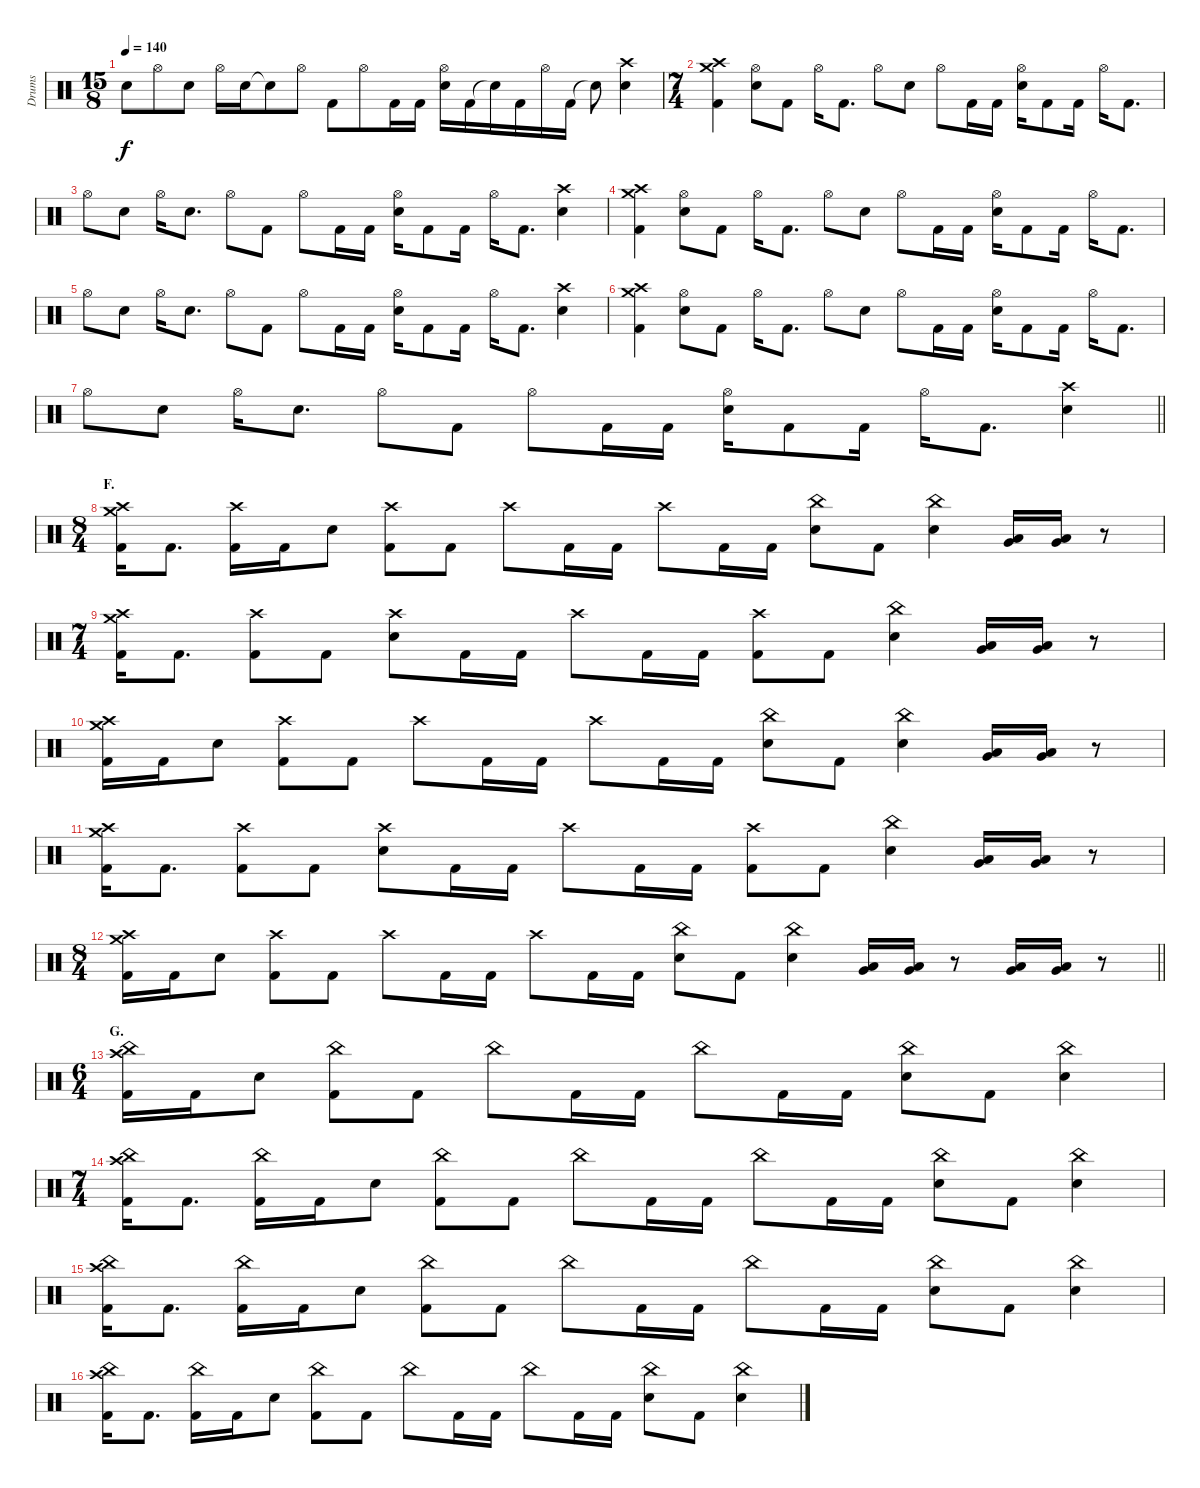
\track ("Drums" "Drums") {instrument percussion}
\staff {score}
\articulation defaults
\ts (15 8)
\tempo 140
\clef neutral
\ks c "Snare (hit)"{t}.8{dy f} "Hi-Hat (open)".8 "Electric Snare (hit)".8 "Hi-Hat (open)".16 "Electric Snare (hit)".16 "Snare (hit)"{t}.8 "Hi-Hat (open)".8 "Kick (hit) 2".8 "Hi-Hat (open)".8 "Kick (hit) 2".16 "Kick (hit) 2".16
("Hi-Hat (open)" "Electric Snare (hit)").16 "Kick (hit) 2".16 "Snare (hit)"{t}.16 "Kick (hit) 2".16 "Hi-Hat (open)".16 "Kick (hit) 2".16 "Snare (hit)"{t}.8 ("Crash high (hit)" "Electric Snare (hit)").4 |
\ts (7 4)
("Crash medium (hit)" "Crash high (hit)" "Kick (hit) 2").4 ("Hi-Hat (open)" "Electric Snare (hit)").8 "Kick (hit) 2".8 "Hi-Hat (open)".16 "Kick (hit) 2".8{d} "Hi-Hat (open)".8 "Electric Snare (hit)".8 "Hi-Hat (open)".8 "Kick (hit) 2".16 "Kick (hit) 2".16 ("Hi-Hat (open)" "Electric Snare (hit)").16 "Kick (hit) 2".8 "Kick (hit) 2".16 "Hi-Hat (open)".16 "Kick (hit) 2".8{d} |
"Hi-Hat (open)".8 "Electric Snare (hit)".8 "Hi-Hat (open)".16 "Electric Snare (hit)".8{d} "Hi-Hat (open)".8 "Kick (hit) 2".8 "Hi-Hat (open)".8 "Kick (hit) 2".16 "Kick (hit) 2".16 ("Hi-Hat (open)" "Electric Snare (hit)").16 "Kick (hit) 2".8 "Kick (hit) 2".16 "Hi-Hat (open)".16 "Kick (hit) 2".8{d} ("Crash high (hit)" "Electric Snare (hit)").4 |
("Crash medium (hit)" "Crash high (hit)" "Kick (hit) 2").4 ("Hi-Hat (open)" "Electric Snare (hit)").8 "Kick (hit) 2".8 "Hi-Hat (open)".16 "Kick (hit) 2".8{d} "Hi-Hat (open)".8 "Electric Snare (hit)".8 "Hi-Hat (open)".8 "Kick (hit) 2".16 "Kick (hit) 2".16 ("Hi-Hat (open)" "Electric Snare (hit)").16 "Kick (hit) 2".8 "Kick (hit) 2".16 "Hi-Hat (open)".16 "Kick (hit) 2".8{d} |
"Hi-Hat (open)".8 "Electric Snare (hit)".8 "Hi-Hat (open)".16 "Electric Snare (hit)".8{d} "Hi-Hat (open)".8 "Kick (hit) 2".8 "Hi-Hat (open)".8 "Kick (hit) 2".16 "Kick (hit) 2".16 ("Hi-Hat (open)" "Electric Snare (hit)").16 "Kick (hit) 2".8 "Kick (hit) 2".16 "Hi-Hat (open)".16 "Kick (hit) 2".8{d} ("Crash high (hit)" "Electric Snare (hit)").4 |
("Crash medium (hit)" "Crash high (hit)" "Kick (hit) 2").4 ("Hi-Hat (open)" "Electric Snare (hit)").8 "Kick (hit) 2".8 "Hi-Hat (open)".16 "Kick (hit) 2".8{d} "Hi-Hat (open)".8 "Electric Snare (hit)".8 "Hi-Hat (open)".8 "Kick (hit) 2".16 "Kick (hit) 2".16 ("Hi-Hat (open)" "Electric Snare (hit)").16 "Kick (hit) 2".8 "Kick (hit) 2".16 "Hi-Hat (open)".16 "Kick (hit) 2".8{d} |
\barLineRight lightlight "Hi-Hat (open)".8 "Electric Snare (hit)".8 "Hi-Hat (open)".16 "Electric Snare (hit)".8{d} "Hi-Hat (open)".8 "Kick (hit) 2".8 "Hi-Hat (open)".8 "Kick (hit) 2".16 "Kick (hit) 2".16
("Hi-Hat (open)" "Electric Snare (hit)").16 "Kick (hit) 2".8 "Kick (hit) 2".16 "Hi-Hat (open)".16 "Kick (hit) 2".8{d} ("Crash high (hit)" "Electric Snare (hit)").4 |
\ts (8 4)
\section ("" "F.")
("Crash medium (hit)" "Crash high (hit)" "Kick (hit) 2").16 "Kick (hit) 2".8{d} ("Crash high (hit)" "Kick (hit) 2").16 "Kick (hit) 2".16 "Electric Snare (hit)".8 ("Crash high (hit)" "Kick (hit) 2").8 "Kick (hit) 2".8 "Crash high (hit)".8 "Kick (hit) 2".16 "Kick (hit) 2".16 "Crash high (hit)".8 "Kick (hit) 2".16 "Kick (hit) 2".16 ("China (hit)" "Electric Snare (hit)").8 "Kick (hit) 2".8 ("China (hit)" "Electric Snare (hit)").4 ("Low Tom (hit)" "Very Low Tom (hit)").16 ("Low Tom (hit)" "Very Low Tom (hit)").16 r.8 |
\ts (7 4)
("Crash medium (hit)" "Crash high (hit)" "Kick (hit) 2").16 "Kick (hit) 2".8{d} ("Crash high (hit)" "Kick (hit) 2").8 "Kick (hit) 2".8 ("Crash high (hit)" "Electric Snare (hit)").8 "Kick (hit) 2".16 "Kick (hit) 2".16 "Crash high (hit)".8 "Kick (hit) 2".16 "Kick (hit) 2".16 ("Crash high (hit)" "Kick (hit) 2").8 "Kick (hit) 2".8 ("China (hit)" "Electric Snare (hit)").4 ("Low Tom (hit)" "Very Low Tom (hit)").16 ("Low Tom (hit)" "Very Low Tom (hit)").16 r.8 |
("Crash medium (hit)" "Crash high (hit)" "Kick (hit) 2").16 "Kick (hit) 2".16 "Electric Snare (hit)".8 ("Crash high (hit)" "Kick (hit) 2").8 "Kick (hit) 2".8 "Crash high (hit)".8 "Kick (hit) 2".16 "Kick (hit) 2".16 "Crash high (hit)".8 "Kick (hit) 2".16 "Kick (hit) 2".16 ("China (hit)" "Electric Snare (hit)").8 "Kick (hit) 2".8 ("China (hit)" "Electric Snare (hit)").4 ("Low Tom (hit)" "Very Low Tom (hit)").16 ("Low Tom (hit)" "Very Low Tom (hit)").16 r.8 |
("Crash medium (hit)" "Crash high (hit)" "Kick (hit) 2").16 "Kick (hit) 2".8{d} ("Crash high (hit)" "Kick (hit) 2").8 "Kick (hit) 2".8 ("Crash high (hit)" "Electric Snare (hit)").8 "Kick (hit) 2".16 "Kick (hit) 2".16 "Crash high (hit)".8 "Kick (hit) 2".16 "Kick (hit) 2".16 ("Crash high (hit)" "Kick (hit) 2").8 "Kick (hit) 2".8 ("China (hit)" "Electric Snare (hit)").4 ("Low Tom (hit)" "Very Low Tom (hit)").16 ("Low Tom (hit)" "Very Low Tom (hit)").16 r.8 |
\ts (8 4)
\barLineRight lightlight
("Crash medium (hit)" "Crash high (hit)" "Kick (hit) 2").16 "Kick (hit) 2".16 "Electric Snare (hit)".8 ("Crash high (hit)" "Kick (hit) 2").8 "Kick (hit) 2".8 "Crash high (hit)".8 "Kick (hit) 2".16 "Kick (hit) 2".16 "Crash high (hit)".8 "Kick (hit) 2".16 "Kick (hit) 2".16 ("China (hit)" "Electric Snare (hit)").8 "Kick (hit) 2".8 ("China (hit)" "Electric Snare (hit)").4 ("Low Tom (hit)" "Very Low Tom (hit)").16 ("Low Tom (hit)" "Very Low Tom (hit)").16 r.8 ("Low Tom (hit)" "Very Low Tom (hit)").16 ("Low Tom (hit)" "Very Low Tom (hit)").16 r.8 |
\ts (6 4)
\section ("" "G.")
("China (hit)" "Crash high (hit)" "Kick (hit) 2").16 "Kick (hit) 2".16 "Electric Snare (hit)".8 ("China (hit)" "Kick (hit) 2").8 "Kick (hit) 2".8 "China (hit)".8 "Kick (hit) 2".16 "Kick (hit) 2".16 "China (hit)".8 "Kick (hit) 2".16 "Kick (hit) 2".16 ("China (hit)" "Electric Snare (hit)").8 "Kick (hit) 2".8 ("China (hit)" "Electric Snare (hit)").4 |
\ts (7 4)
("China (hit)" "Crash high (hit)" "Kick (hit) 2").16 "Kick (hit) 2".8{d} ("China (hit)" "Kick (hit) 2").16 "Kick (hit) 2".16 "Electric Snare (hit)".8 ("China (hit)" "Kick (hit) 2").8 "Kick (hit) 2".8 "China (hit)".8 "Kick (hit) 2".16 "Kick (hit) 2".16 "China (hit)".8 "Kick (hit) 2".16 "Kick (hit) 2".16 ("China (hit)" "Electric Snare (hit)").8 "Kick (hit) 2".8 ("China (hit)" "Electric Snare (hit)").4 |
("China (hit)" "Crash high (hit)" "Kick (hit) 2").16 "Kick (hit) 2".8{d} ("China (hit)" "Kick (hit) 2").16 "Kick (hit) 2".16 "Electric Snare (hit)".8 ("China (hit)" "Kick (hit) 2").8 "Kick (hit) 2".8 "China (hit)".8 "Kick (hit) 2".16 "Kick (hit) 2".16 "China (hit)".8 "Kick (hit) 2".16 "Kick (hit) 2".16 ("China (hit)" "Electric Snare (hit)").8 "Kick (hit) 2".8 ("China (hit)" "Electric Snare (hit)").4 |
("China (hit)" "Crash high (hit)" "Kick (hit) 2").16 "Kick (hit) 2".8{d} ("China (hit)" "Kick (hit) 2").16 "Kick (hit) 2".16 "Electric Snare (hit)".8 ("China (hit)" "Kick (hit) 2").8 "Kick (hit) 2".8 "China (hit)".8 "Kick (hit) 2".16 "Kick (hit) 2".16 "China (hit)".8 "Kick (hit) 2".16 "Kick (hit) 2".16 ("China (hit)" "Electric Snare (hit)").8 "Kick (hit) 2".8 ("China (hit)" "Electric Snare (hit)").4
